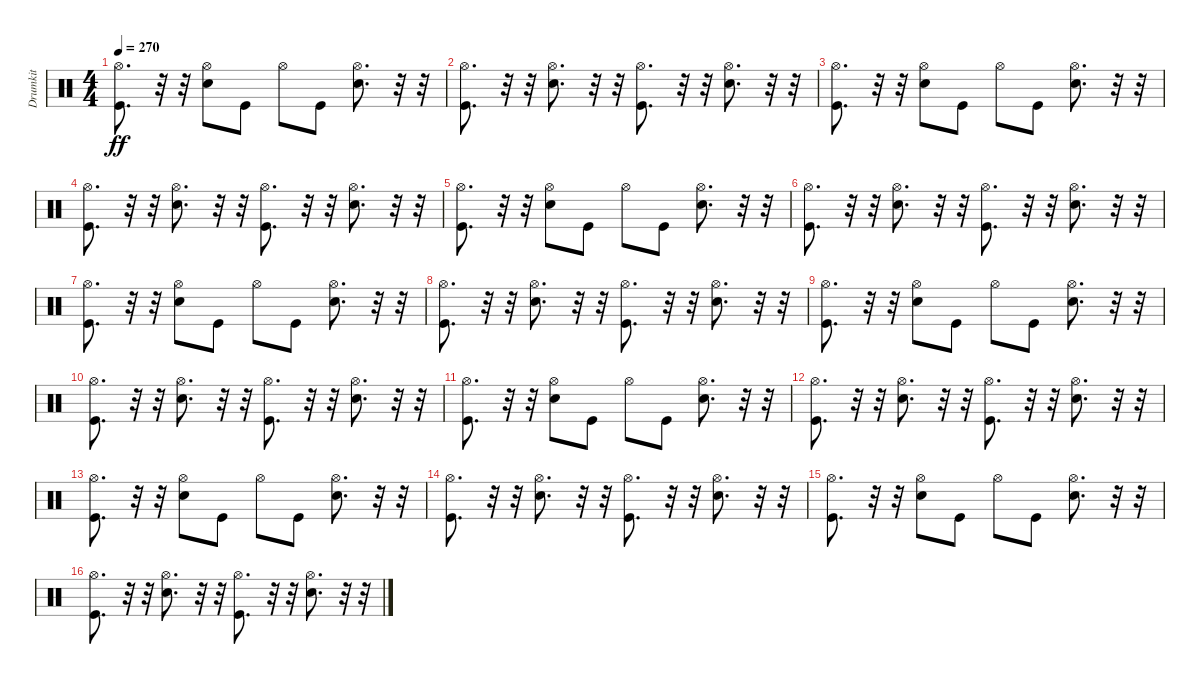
\track ("Drumkit" "Drumkit") {instrument percussion}
\staff {score}
\articulation defaults
\ts (4 4)
\tempo 270
\clef neutral
\ks c
("Kick (hit)" "Hi-Hat (open)").8{d dy ff} r.32 r.32 ("Snare (hit) 2" "Hi-Hat (open)").8 "Kick (hit)".8 "Hi-Hat (open)".8 "Kick (hit)".8 ("Snare (hit) 2" "Hi-Hat (open)").8{d} r.32 r.32 |
("Kick (hit)" "Hi-Hat (open)").8{d} r.32 r.32 ("Snare (hit) 2" "Hi-Hat (open)").8{d} r.32 r.32 ("Kick (hit)" "Hi-Hat (open)").8{d} r.32 r.32 ("Snare (hit) 2" "Hi-Hat (open)").8{d} r.32 r.32 |
("Kick (hit)" "Hi-Hat (open)").8{d} r.32 r.32 ("Snare (hit) 2" "Hi-Hat (open)").8 "Kick (hit)".8 "Hi-Hat (open)".8 "Kick (hit)".8 ("Snare (hit) 2" "Hi-Hat (open)").8{d} r.32 r.32 |
("Kick (hit)" "Hi-Hat (open)").8{d} r.32 r.32 ("Snare (hit) 2" "Hi-Hat (open)").8{d} r.32 r.32 ("Kick (hit)" "Hi-Hat (open)").8{d} r.32 r.32 ("Snare (hit) 2" "Hi-Hat (open)").8{d} r.32 r.32 |
("Kick (hit)" "Hi-Hat (open)").8{d} r.32 r.32 ("Snare (hit) 2" "Hi-Hat (open)").8 "Kick (hit)".8 "Hi-Hat (open)".8 "Kick (hit)".8 ("Snare (hit) 2" "Hi-Hat (open)").8{d} r.32 r.32 |
("Kick (hit)" "Hi-Hat (open)").8{d} r.32 r.32 ("Snare (hit) 2" "Hi-Hat (open)").8{d} r.32 r.32 ("Kick (hit)" "Hi-Hat (open)").8{d} r.32 r.32 ("Snare (hit) 2" "Hi-Hat (open)").8{d} r.32 r.32 |
("Kick (hit)" "Hi-Hat (open)").8{d} r.32 r.32 ("Snare (hit) 2" "Hi-Hat (open)").8 "Kick (hit)".8 "Hi-Hat (open)".8 "Kick (hit)".8 ("Snare (hit) 2" "Hi-Hat (open)").8{d} r.32 r.32 |
("Kick (hit)" "Hi-Hat (open)").8{d} r.32 r.32 ("Snare (hit) 2" "Hi-Hat (open)").8{d} r.32 r.32 ("Kick (hit)" "Hi-Hat (open)").8{d} r.32 r.32 ("Snare (hit) 2" "Hi-Hat (open)").8{d} r.32 r.32 |
("Kick (hit)" "Hi-Hat (open)").8{d} r.32 r.32 ("Snare (hit) 2" "Hi-Hat (open)").8 "Kick (hit)".8 "Hi-Hat (open)".8 "Kick (hit)".8 ("Snare (hit) 2" "Hi-Hat (open)").8{d} r.32 r.32 |
("Kick (hit)" "Hi-Hat (open)").8{d} r.32 r.32 ("Snare (hit) 2" "Hi-Hat (open)").8{d} r.32 r.32 ("Kick (hit)" "Hi-Hat (open)").8{d} r.32 r.32 ("Snare (hit) 2" "Hi-Hat (open)").8{d} r.32 r.32 |
("Kick (hit)" "Hi-Hat (open)").8{d} r.32 r.32 ("Snare (hit) 2" "Hi-Hat (open)").8 "Kick (hit)".8 "Hi-Hat (open)".8 "Kick (hit)".8 ("Snare (hit) 2" "Hi-Hat (open)").8{d} r.32 r.32 |
("Kick (hit)" "Hi-Hat (open)").8{d} r.32 r.32 ("Snare (hit) 2" "Hi-Hat (open)").8{d} r.32 r.32 ("Kick (hit)" "Hi-Hat (open)").8{d} r.32 r.32 ("Snare (hit) 2" "Hi-Hat (open)").8{d} r.32 r.32 |
("Kick (hit)" "Hi-Hat (open)").8{d} r.32 r.32 ("Snare (hit) 2" "Hi-Hat (open)").8 "Kick (hit)".8 "Hi-Hat (open)".8 "Kick (hit)".8 ("Snare (hit) 2" "Hi-Hat (open)").8{d} r.32 r.32 |
("Kick (hit)" "Hi-Hat (open)").8{d} r.32 r.32 ("Snare (hit) 2" "Hi-Hat (open)").8{d} r.32 r.32 ("Kick (hit)" "Hi-Hat (open)").8{d} r.32 r.32 ("Snare (hit) 2" "Hi-Hat (open)").8{d} r.32 r.32 |
("Kick (hit)" "Hi-Hat (open)").8{d} r.32 r.32 ("Snare (hit) 2" "Hi-Hat (open)").8 "Kick (hit)".8 "Hi-Hat (open)".8 "Kick (hit)".8 ("Snare (hit) 2" "Hi-Hat (open)").8{d} r.32 r.32 |
("Kick (hit)" "Hi-Hat (open)").8{d} r.32 r.32 ("Snare (hit) 2" "Hi-Hat (open)").8{d} r.32 r.32 ("Kick (hit)" "Hi-Hat (open)").8{d} r.32 r.32 ("Snare (hit) 2" "Hi-Hat (open)").8{d} r.32 r.32
